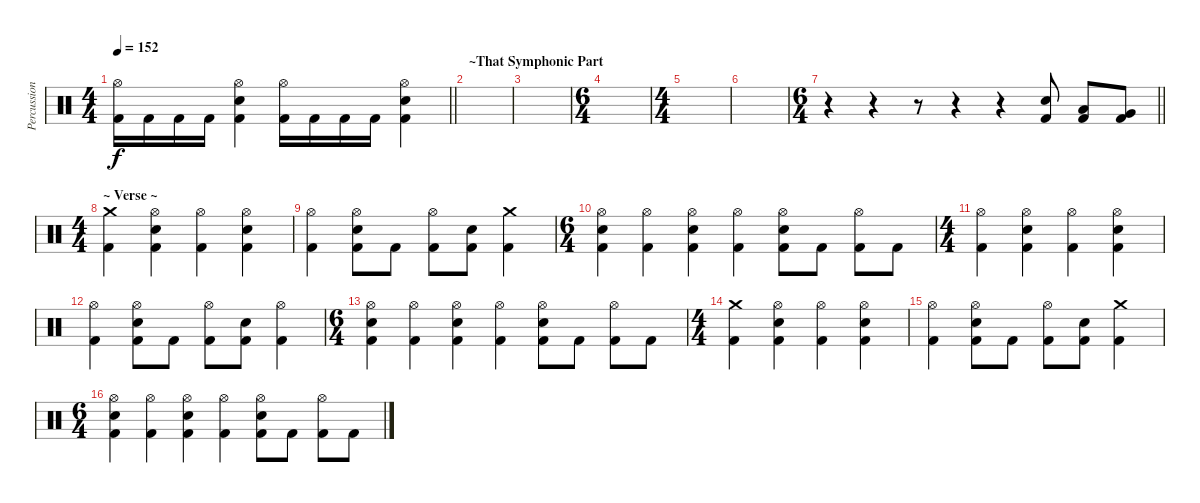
\track ("Percussion" "Percussion") {instrument percussion}
\staff {score}
\articulation defaults
\ts (4 4)
\tempo 152
\clef neutral
\barLineRight lightlight
\ks c
("Hi-Hat (open)" "Kick (hit) 2").16{dy f} "Kick (hit) 2".16 "Kick (hit) 2".16 "Kick (hit) 2".16 ("Hi-Hat (open)" "Electric Snare (hit)" "Kick (hit) 2").4 ("Hi-Hat (open)" "Kick (hit) 2").16 "Kick (hit) 2".16 "Kick (hit) 2".16 "Kick (hit) 2".16 ("Hi-Hat (open)" "Electric Snare (hit)" "Kick (hit) 2").4 |
\section ("" "~That Symphonic Part")
|
|
\ts (6 4)
|
\ts (4 4)
|
|
\ts (6 4)
\barLineRight lightlight
r.4 r.4 r.8 r.4 r.4 ("Electric Snare (hit)" "Kick (hit) 2").8 ("Low Tom (hit)" "Kick (hit) 2").8 ("Very Low Tom (hit)" "Kick (hit) 2").8 |
\ts (4 4)
\section ("" "~ Verse ~")
("Crash medium (hit)" "Kick (hit) 2").4 ("Hi-Hat (open)" "Electric Snare (hit)" "Kick (hit) 2").4 ("Hi-Hat (open)" "Kick (hit) 2").4 ("Hi-Hat (open)" "Electric Snare (hit)" "Kick (hit) 2").4 |
("Hi-Hat (open)" "Kick (hit) 2").4 ("Hi-Hat (open)" "Electric Snare (hit)" "Kick (hit) 2").8 "Kick (hit) 2".8 ("Hi-Hat (open)" "Kick (hit) 2").8 ("Electric Snare (hit)" "Kick (hit) 2").8 ("Crash medium (hit)" "Kick (hit) 2").4 |
\ts (6 4)
("Hi-Hat (open)" "Electric Snare (hit)" "Kick (hit) 2").4 ("Hi-Hat (open)" "Kick (hit) 2").4 ("Hi-Hat (open)" "Electric Snare (hit)" "Kick (hit) 2").4 ("Hi-Hat (open)" "Kick (hit) 2").4 ("Hi-Hat (open)" "Electric Snare (hit)" "Kick (hit) 2").8 "Kick (hit) 2".8 ("Hi-Hat (open)" "Kick (hit) 2").8 "Kick (hit) 2".8 |
\ts (4 4)
("Hi-Hat (open)" "Kick (hit) 2").4 ("Hi-Hat (open)" "Electric Snare (hit)" "Kick (hit) 2").4 ("Hi-Hat (open)" "Kick (hit) 2").4 ("Hi-Hat (open)" "Electric Snare (hit)" "Kick (hit) 2").4 |
("Hi-Hat (open)" "Kick (hit) 2").4 ("Hi-Hat (open)" "Electric Snare (hit)" "Kick (hit) 2").8 "Kick (hit) 2".8 ("Hi-Hat (open)" "Kick (hit) 2").8 ("Electric Snare (hit)" "Kick (hit) 2").8 ("Hi-Hat (open)" "Kick (hit) 2").4 |
\ts (6 4)
("Hi-Hat (open)" "Electric Snare (hit)" "Kick (hit) 2").4 ("Hi-Hat (open)" "Kick (hit) 2").4 ("Hi-Hat (open)" "Electric Snare (hit)" "Kick (hit) 2").4 ("Hi-Hat (open)" "Kick (hit) 2").4 ("Hi-Hat (open)" "Electric Snare (hit)" "Kick (hit) 2").8 "Kick (hit) 2".8 ("Hi-Hat (open)" "Kick (hit) 2").8 "Kick (hit) 2".8 |
\ts (4 4)
("Crash medium (hit)" "Kick (hit) 2").4 ("Hi-Hat (open)" "Electric Snare (hit)" "Kick (hit) 2").4 ("Hi-Hat (open)" "Kick (hit) 2").4 ("Hi-Hat (open)" "Electric Snare (hit)" "Kick (hit) 2").4 |
("Hi-Hat (open)" "Kick (hit) 2").4 ("Hi-Hat (open)" "Electric Snare (hit)" "Kick (hit) 2").8 "Kick (hit) 2".8 ("Hi-Hat (open)" "Kick (hit) 2").8 ("Electric Snare (hit)" "Kick (hit) 2").8 ("Crash medium (hit)" "Kick (hit) 2").4 |
\ts (6 4)
("Hi-Hat (open)" "Electric Snare (hit)" "Kick (hit) 2").4 ("Hi-Hat (open)" "Kick (hit) 2").4 ("Hi-Hat (open)" "Electric Snare (hit)" "Kick (hit) 2").4 ("Hi-Hat (open)" "Kick (hit) 2").4 ("Hi-Hat (open)" "Electric Snare (hit)" "Kick (hit) 2").8 "Kick (hit) 2".8 ("Hi-Hat (open)" "Kick (hit) 2").8 "Kick (hit) 2".8
